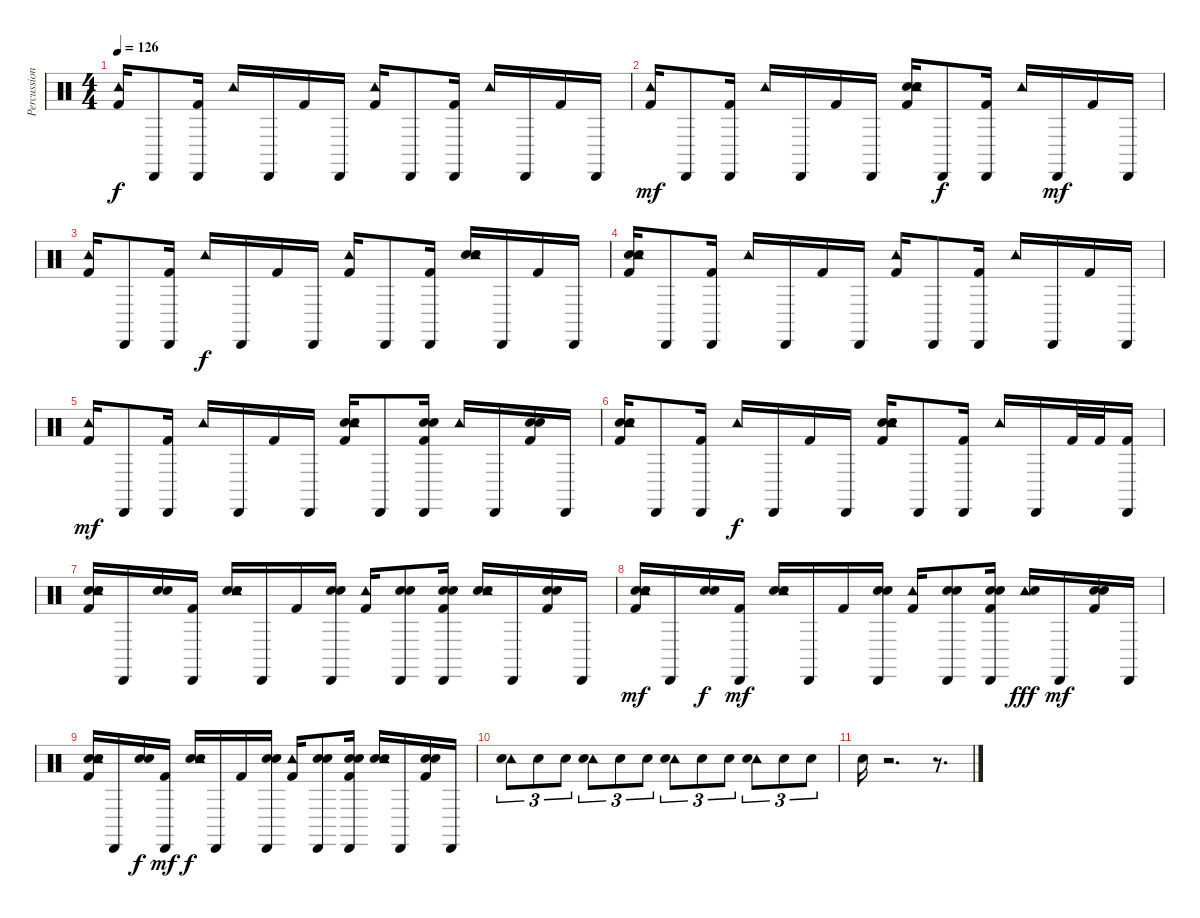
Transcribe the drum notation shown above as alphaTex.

\track ("Percussion" "Percussion") {instrument percussion}
\staff {score}
\articulation defaults
\ts (4 4)
\tempo 126
\clef neutral
\ks c
("Tambourine (hit)" "Kick (hit) 2").16{dy f} "Cabasa (hit)".8 ("Cabasa (hit)" "Kick (hit) 2").16 "Tambourine (hit)".16 "Cabasa (hit)".16 "Kick (hit) 2".16 "Cabasa (hit)".16 ("Tambourine (hit)" "Kick (hit) 2").16 "Cabasa (hit)".8 ("Cabasa (hit)" "Kick (hit) 2").16 "Tambourine (hit)".16 "Cabasa (hit)".16 "Kick (hit) 2".16 "Cabasa (hit)".16 |
("Tambourine (hit)" "Kick (hit) 2").16{dy mf} "Cabasa (hit)".8 ("Cabasa (hit)" "Kick (hit) 2").16 "Tambourine (hit)".16 "Cabasa (hit)".16 "Kick (hit) 2".16 "Cabasa (hit)".16 ("Electric Snare (hit)" "Electric Snare (hit)" "Tambourine (hit)" "Kick (hit) 2").16 "Cabasa (hit)".8{dy f} ("Cabasa (hit)" "Kick (hit) 2").16 "Tambourine (hit)".16 "Cabasa (hit)".16{dy mf} "Kick (hit) 2".16 "Cabasa (hit)".16 |
("Tambourine (hit)" "Kick (hit) 2").16 "Cabasa (hit)".8 ("Cabasa (hit)" "Kick (hit) 2").16 "Tambourine (hit)".16{dy f} "Cabasa (hit)".16 "Kick (hit) 2".16 "Cabasa (hit)".16 ("Tambourine (hit)" "Kick (hit) 2").16 "Cabasa (hit)".8 ("Cabasa (hit)" "Kick (hit) 2").16 ("Electric Snare (hit)" "Electric Snare (hit)" "Tambourine (hit)").16 "Cabasa (hit)".16 "Kick (hit) 2".16 "Cabasa (hit)".16 |
("Electric Snare (hit)" "Electric Snare (hit)" "Tambourine (hit)" "Kick (hit) 2").16 "Cabasa (hit)".8 ("Cabasa (hit)" "Kick (hit) 2").16 "Tambourine (hit)".16 "Cabasa (hit)".16 "Kick (hit) 2".16 "Cabasa (hit)".16 ("Tambourine (hit)" "Kick (hit) 2").16 "Cabasa (hit)".8 ("Cabasa (hit)" "Kick (hit) 2").16 "Tambourine (hit)".16 "Cabasa (hit)".16 "Kick (hit) 2".16 "Cabasa (hit)".16 |
("Tambourine (hit)" "Kick (hit) 2").16{dy mf} "Cabasa (hit)".8 ("Cabasa (hit)" "Kick (hit) 2").16 "Tambourine (hit)".16 "Cabasa (hit)".16 "Kick (hit) 2".16 "Cabasa (hit)".16 ("Electric Snare (hit)" "Electric Snare (hit)" "Tambourine (hit)" "Kick (hit) 2").16 "Cabasa (hit)".8 ("Electric Snare (hit)" "Electric Snare (hit)" "Cabasa (hit)" "Kick (hit) 2").16 "Tambourine (hit)".16 "Cabasa (hit)".16 ("Electric Snare (hit)" "Electric Snare (hit)" "Kick (hit) 2").16 "Cabasa (hit)".16 |
("Electric Snare (hit)" "Electric Snare (hit)" "Tambourine (hit)" "Kick (hit) 2").16 "Cabasa (hit)".8 ("Cabasa (hit)" "Kick (hit) 2").16 "Tambourine (hit)".16{dy f} "Cabasa (hit)".16 "Kick (hit) 2".16 "Cabasa (hit)".16 ("Electric Snare (hit)" "Electric Snare (hit)" "Tambourine (hit)" "Kick (hit) 2").16 "Cabasa (hit)".8 ("Cabasa (hit)" "Kick (hit) 2").16 "Tambourine (hit)".16 "Cabasa (hit)".16 "Kick (hit) 2".32 "Kick (hit) 2".32 ("Cabasa (hit)" "Kick (hit) 2").16 |
("Electric Snare (hit)" "Electric Snare (hit)" "Tambourine (hit)" "Kick (hit) 2").16 "Cabasa (hit)".16 ("Electric Snare (hit)" "Electric Snare (hit)").16 ("Cabasa (hit)" "Kick (hit) 2").16 ("Electric Snare (hit)" "Electric Snare (hit)" "Tambourine (hit)").16 "Cabasa (hit)".16 "Kick (hit) 2".16 ("Electric Snare (hit)" "Electric Snare (hit)" "Cabasa (hit)").16 ("Tambourine (hit)" "Kick (hit) 2").16 ("Electric Snare (hit)" "Electric Snare (hit)" "Cabasa (hit)").8 ("Electric Snare (hit)" "Electric Snare (hit)" "Cabasa (hit)" "Kick (hit) 2").16 ("Electric Snare (hit)" "Electric Snare (hit)" "Tambourine (hit)").16 "Cabasa (hit)".16 ("Electric Snare (hit)" "Electric Snare (hit)" "Kick (hit) 2").16 "Cabasa (hit)".16 |
("Electric Snare (hit)" "Electric Snare (hit)" "Tambourine (hit)" "Kick (hit) 2").16{dy mf} "Cabasa (hit)".16 ("Electric Snare (hit)" "Electric Snare (hit)").16{dy f} ("Cabasa (hit)" "Kick (hit) 2").16{dy mf} ("Electric Snare (hit)" "Electric Snare (hit)" "Tambourine (hit)").16 "Cabasa (hit)".16 "Kick (hit) 2".16 ("Electric Snare (hit)" "Electric Snare (hit)" "Cabasa (hit)").16 ("Tambourine (hit)" "Kick (hit) 2").16 ("Electric Snare (hit)" "Electric Snare (hit)" "Cabasa (hit)").8 ("Electric Snare (hit)" "Electric Snare (hit)" "Cabasa (hit)" "Kick (hit) 2").16 ("Tambourine (hit)" "Electric Snare (hit)").16{dy fff} "Cabasa (hit)".16{dy mf} ("Electric Snare (hit)" "Electric Snare (hit)" "Kick (hit) 2").16 "Cabasa (hit)".16 |
("Electric Snare (hit)" "Electric Snare (hit)" "Tambourine (hit)" "Kick (hit) 2").16 "Cabasa (hit)".16 ("Electric Snare (hit)" "Electric Snare (hit)").16{dy f} ("Cabasa (hit)" "Kick (hit) 2").16{dy mf} ("Electric Snare (hit)" "Electric Snare (hit)" "Tambourine (hit)").16{dy f} "Cabasa (hit)".16 "Kick (hit) 2".16 ("Electric Snare (hit)" "Electric Snare (hit)" "Cabasa (hit)").16 ("Tambourine (hit)" "Kick (hit) 2").16 ("Electric Snare (hit)" "Electric Snare (hit)" "Cabasa (hit)").8 ("Electric Snare (hit)" "Electric Snare (hit)" "Cabasa (hit)" "Kick (hit) 2").16 ("Electric Snare (hit)" "Electric Snare (hit)" "Tambourine (hit)").16 "Cabasa (hit)".16 ("Electric Snare (hit)" "Electric Snare (hit)" "Kick (hit) 2").16 "Cabasa (hit)".16 |
("Tambourine (hit)" "Electric Snare (hit)").8{tu (3 2)} "Electric Snare (hit)".8{tu (3 2)} "Electric Snare (hit)".8{tu (3 2)} ("Tambourine (hit)" "Electric Snare (hit)").8{tu (3 2)} "Electric Snare (hit)".8{tu (3 2)} "Electric Snare (hit)".8{tu (3 2)} ("Tambourine (hit)" "Electric Snare (hit)").8{tu (3 2)} "Electric Snare (hit)".8{tu (3 2)} "Electric Snare (hit)".8{tu (3 2)} ("Tambourine (hit)" "Electric Snare (hit)").8{tu (3 2)} "Electric Snare (hit)".8{tu (3 2)} "Electric Snare (hit)".8{tu (3 2)} |
"Electric Snare (hit)".16 r.2{d} r.8{d}
